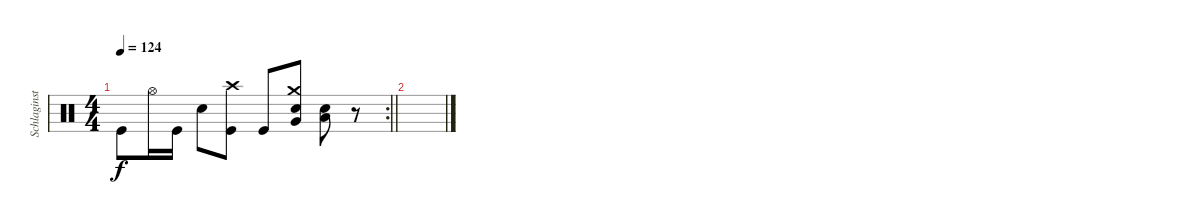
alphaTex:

\track ("Schlaginstrumente - Auswahl" "Schlaginst") {instrument percussion}
\staff {score}
\articulation defaults
\rc 2
\ts (4 4)
\tempo 124
\clef neutral
\barLineRight lightlight
\ks c "Kick (hit)".8{dy f} "Hi-Hat (open)".16 "Kick (hit)".16 "Snare (hit) 2".8
("Crash high (hit)" "Kick (hit)").8 "Kick (hit)".8 ("Crash medium (hit)" "Very Low Tom (hit)" "Snare (hit) 2").8 ("Low Floor Tom (hit)" "Snare (hit) 2").8 r.8 |
\section ("" "")
